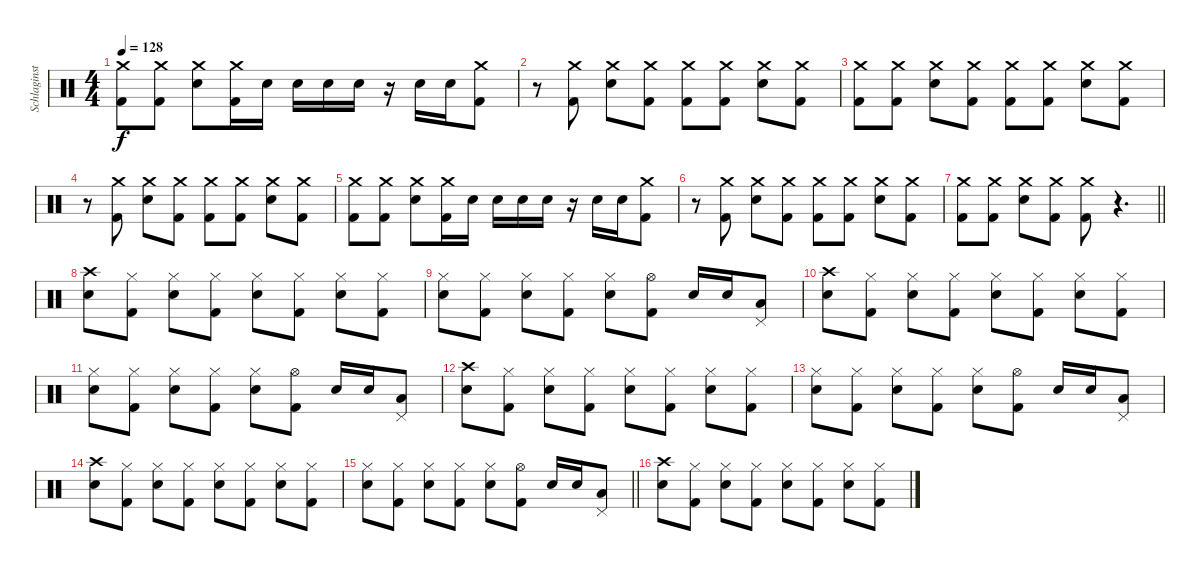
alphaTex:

\track ("Schlaginstrumente - Auswahl" "Schlaginst") {instrument percussion}
\staff {score}
\articulation defaults
\ts (4 4)
\tempo 128
\clef neutral
\ks c
("Crash medium (hit)" "Kick (hit) 2").8{dy f} ("Crash medium (hit)" "Kick (hit) 2").8 ("Crash medium (hit)" "Snare (hit) 2").8 ("Crash medium (hit)" "Kick (hit) 2").16 "Snare (hit) 2".16 "Snare (hit) 2".16 "Snare (hit) 2".16 "Snare (hit) 2".16 r.16 "Snare (hit) 2".16 "Snare (hit) 2".16 ("Crash medium (hit)" "Kick (hit) 2").8 |
r.8 ("Crash medium (hit)" "Kick (hit) 2").8 ("Crash medium (hit)" "Snare (hit) 2").8 ("Crash medium (hit)" "Kick (hit) 2").8 ("Crash medium (hit)" "Kick (hit) 2").8 ("Crash medium (hit)" "Kick (hit) 2").8 ("Crash medium (hit)" "Snare (hit) 2").8 ("Crash medium (hit)" "Kick (hit) 2").8 |
("Crash medium (hit)" "Kick (hit) 2").8 ("Crash medium (hit)" "Kick (hit) 2").8 ("Crash medium (hit)" "Snare (hit) 2").8 ("Crash medium (hit)" "Kick (hit) 2").8 ("Crash medium (hit)" "Kick (hit) 2").8 ("Crash medium (hit)" "Kick (hit) 2").8 ("Crash medium (hit)" "Snare (hit) 2").8 ("Crash medium (hit)" "Kick (hit) 2").8 |
r.8 ("Crash medium (hit)" "Kick (hit) 2").8 ("Crash medium (hit)" "Snare (hit) 2").8 ("Crash medium (hit)" "Kick (hit) 2").8 ("Crash medium (hit)" "Kick (hit) 2").8 ("Crash medium (hit)" "Kick (hit) 2").8 ("Crash medium (hit)" "Snare (hit) 2").8 ("Crash medium (hit)" "Kick (hit) 2").8 |
("Crash medium (hit)" "Kick (hit) 2").8 ("Crash medium (hit)" "Kick (hit) 2").8 ("Crash medium (hit)" "Snare (hit) 2").8 ("Crash medium (hit)" "Kick (hit) 2").16 "Snare (hit) 2".16 "Snare (hit) 2".16 "Snare (hit) 2".16 "Snare (hit) 2".16 r.16 "Snare (hit) 2".16 "Snare (hit) 2".16 ("Crash medium (hit)" "Kick (hit) 2").8 |
r.8 ("Crash medium (hit)" "Kick (hit) 2").8 ("Crash medium (hit)" "Snare (hit) 2").8 ("Crash medium (hit)" "Kick (hit) 2").8 ("Crash medium (hit)" "Kick (hit) 2").8 ("Crash medium (hit)" "Kick (hit) 2").8 ("Crash medium (hit)" "Snare (hit) 2").8 ("Crash medium (hit)" "Kick (hit) 2").8 |
\barLineRight lightlight
("Crash medium (hit)" "Kick (hit) 2").8 ("Crash medium (hit)" "Kick (hit) 2").8 ("Crash medium (hit)" "Snare (hit) 2").8 ("Crash medium (hit)" "Kick (hit) 2").8 ("Crash medium (hit)" "Kick (hit) 2").8 r.4{d} |
("Crash high (hit)" "Snare (hit) 2").8 ("Hi-Hat (closed)" "Kick (hit) 2").8 ("Hi-Hat (closed)" "Snare (hit) 2").8 ("Hi-Hat (closed)" "Kick (hit) 2").8 ("Hi-Hat (closed)" "Snare (hit) 2").8 ("Hi-Hat (closed)" "Kick (hit) 2").8 ("Hi-Hat (closed)" "Snare (hit) 2").8 ("Hi-Hat (closed)" "Kick (hit) 2").8 |
("Hi-Hat (closed)" "Snare (hit) 2").8 ("Hi-Hat (closed)" "Kick (hit) 2").8 ("Hi-Hat (closed)" "Snare (hit) 2").8 ("Hi-Hat (closed)" "Kick (hit) 2").8 ("Hi-Hat (closed)" "Snare (hit) 2").8 ("Hi-Hat (open)" "Kick (hit) 2").8 "Snare (hit) 2".16 "Snare (hit) 2".16 ("Pedal Hi-Hat (hit)" "Low Tom (hit)").8 |
("Crash high (hit)" "Snare (hit) 2").8 ("Hi-Hat (closed)" "Kick (hit) 2").8 ("Hi-Hat (closed)" "Snare (hit) 2").8 ("Hi-Hat (closed)" "Kick (hit) 2").8 ("Hi-Hat (closed)" "Snare (hit) 2").8 ("Hi-Hat (closed)" "Kick (hit) 2").8 ("Hi-Hat (closed)" "Snare (hit) 2").8 ("Hi-Hat (closed)" "Kick (hit) 2").8 |
("Hi-Hat (closed)" "Snare (hit) 2").8 ("Hi-Hat (closed)" "Kick (hit) 2").8 ("Hi-Hat (closed)" "Snare (hit) 2").8 ("Hi-Hat (closed)" "Kick (hit) 2").8 ("Hi-Hat (closed)" "Snare (hit) 2").8 ("Hi-Hat (open)" "Kick (hit) 2").8 "Snare (hit) 2".16 "Snare (hit) 2".16 ("Pedal Hi-Hat (hit)" "Low Tom (hit)").8 |
("Crash high (hit)" "Snare (hit) 2").8 ("Hi-Hat (closed)" "Kick (hit) 2").8 ("Hi-Hat (closed)" "Snare (hit) 2").8 ("Hi-Hat (closed)" "Kick (hit) 2").8 ("Hi-Hat (closed)" "Snare (hit) 2").8 ("Hi-Hat (closed)" "Kick (hit) 2").8 ("Hi-Hat (closed)" "Snare (hit) 2").8 ("Hi-Hat (closed)" "Kick (hit) 2").8 |
("Hi-Hat (closed)" "Snare (hit) 2").8 ("Hi-Hat (closed)" "Kick (hit) 2").8 ("Hi-Hat (closed)" "Snare (hit) 2").8 ("Hi-Hat (closed)" "Kick (hit) 2").8 ("Hi-Hat (closed)" "Snare (hit) 2").8 ("Hi-Hat (open)" "Kick (hit) 2").8 "Snare (hit) 2".16 "Snare (hit) 2".16 ("Pedal Hi-Hat (hit)" "Low Tom (hit)").8 |
("Crash high (hit)" "Snare (hit) 2").8 ("Hi-Hat (closed)" "Kick (hit) 2").8 ("Hi-Hat (closed)" "Snare (hit) 2").8 ("Hi-Hat (closed)" "Kick (hit) 2").8 ("Hi-Hat (closed)" "Snare (hit) 2").8 ("Hi-Hat (closed)" "Kick (hit) 2").8 ("Hi-Hat (closed)" "Snare (hit) 2").8 ("Hi-Hat (closed)" "Kick (hit) 2").8 |
\barLineRight lightlight
("Hi-Hat (closed)" "Snare (hit) 2").8 ("Hi-Hat (closed)" "Kick (hit) 2").8 ("Hi-Hat (closed)" "Snare (hit) 2").8 ("Hi-Hat (closed)" "Kick (hit) 2").8 ("Hi-Hat (closed)" "Snare (hit) 2").8 ("Hi-Hat (open)" "Kick (hit) 2").8 "Snare (hit) 2".16 "Snare (hit) 2".16 ("Pedal Hi-Hat (hit)" "Low Tom (hit)").8 |
("Crash high (hit)" "Snare (hit) 2").8 ("Hi-Hat (closed)" "Kick (hit) 2").8 ("Hi-Hat (closed)" "Snare (hit) 2").8 ("Hi-Hat (closed)" "Kick (hit) 2").8 ("Hi-Hat (closed)" "Snare (hit) 2").8 ("Hi-Hat (closed)" "Kick (hit) 2").8 ("Hi-Hat (closed)" "Snare (hit) 2").8 ("Hi-Hat (closed)" "Kick (hit) 2").8
